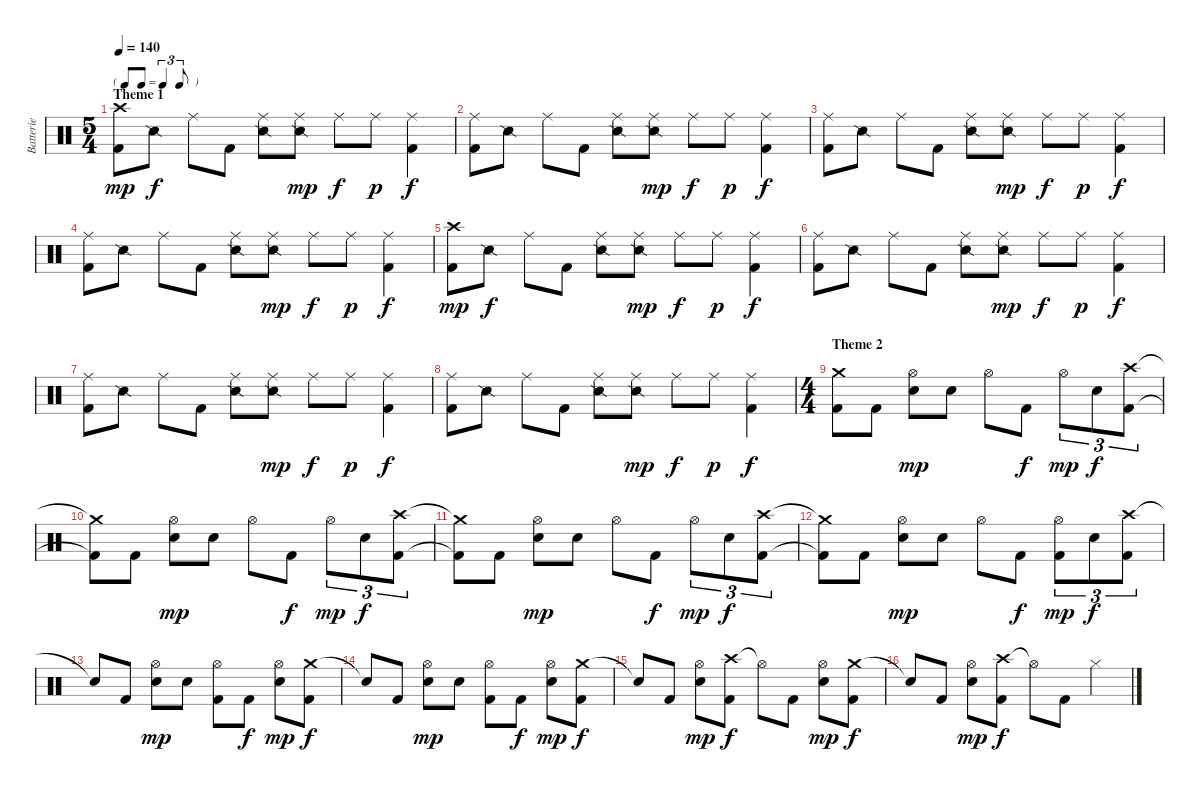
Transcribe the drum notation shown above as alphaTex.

\track ("Batterie" "Batterie") {instrument percussion}
\staff {score}
\articulation defaults
\ts (5 4)
\tf triplet8th
\section ("" "Theme 1")
\tempo 140
\clef neutral
\ks c
("Crash high (hit)" "Kick (hit) 2").8{dy mp} "Snare (side stick) 2".8{dy f} "Ride (middle)".8 "Kick (hit) 2".8 ("Ride (middle)" "Snare (side stick) 2").8 ("Ride (middle)" "Snare (side stick) 2").8{dy mp} "Ride (middle)".8{dy f} "Ride (middle)".8{dy p} ("Ride (middle)" "Kick (hit) 2").4{dy f} |
("Ride (middle)" "Kick (hit) 2").8 "Snare (side stick) 2".8 "Ride (middle)".8 "Kick (hit) 2".8 ("Ride (middle)" "Snare (side stick) 2").8 ("Ride (middle)" "Snare (side stick) 2").8{dy mp} "Ride (middle)".8{dy f} "Ride (middle)".8{dy p} ("Ride (middle)" "Kick (hit) 2").4{dy f} |
("Ride (middle)" "Kick (hit) 2").8 "Snare (side stick) 2".8 "Ride (middle)".8 "Kick (hit) 2".8 ("Ride (middle)" "Snare (side stick) 2").8 ("Ride (middle)" "Snare (side stick) 2").8{dy mp} "Ride (middle)".8{dy f} "Ride (middle)".8{dy p} ("Ride (middle)" "Kick (hit) 2").4{dy f} |
("Ride (middle)" "Kick (hit) 2").8 "Snare (side stick) 2".8 "Ride (middle)".8 "Kick (hit) 2".8 ("Ride (middle)" "Snare (side stick) 2").8 ("Ride (middle)" "Snare (side stick) 2").8{dy mp} "Ride (middle)".8{dy f} "Ride (middle)".8{dy p} ("Ride (middle)" "Kick (hit) 2").4{dy f} |
("Crash high (hit)" "Kick (hit) 2").8{dy mp} "Snare (side stick) 2".8{dy f} "Ride (middle)".8 "Kick (hit) 2".8 ("Ride (middle)" "Snare (side stick) 2").8 ("Ride (middle)" "Snare (side stick) 2").8{dy mp} "Ride (middle)".8{dy f} "Ride (middle)".8{dy p} ("Ride (middle)" "Kick (hit) 2").4{dy f} |
("Ride (middle)" "Kick (hit) 2").8 "Snare (side stick) 2".8 "Ride (middle)".8 "Kick (hit) 2".8 ("Ride (middle)" "Snare (side stick) 2").8 ("Ride (middle)" "Snare (side stick) 2").8{dy mp} "Ride (middle)".8{dy f} "Ride (middle)".8{dy p} ("Ride (middle)" "Kick (hit) 2").4{dy f} |
("Ride (middle)" "Kick (hit) 2").8 "Snare (side stick) 2".8 "Ride (middle)".8 "Kick (hit) 2".8 ("Ride (middle)" "Snare (side stick) 2").8 ("Ride (middle)" "Snare (side stick) 2").8{dy mp} "Ride (middle)".8{dy f} "Ride (middle)".8{dy p} ("Ride (middle)" "Kick (hit) 2").4{dy f} |
("Ride (middle)" "Kick (hit) 2").8 "Snare (side stick) 2".8 "Ride (middle)".8 "Kick (hit) 2".8 ("Ride (middle)" "Snare (side stick) 2").8 ("Ride (middle)" "Snare (side stick) 2").8{dy mp} "Ride (middle)".8{dy f} "Ride (middle)".8{dy p} ("Ride (middle)" "Kick (hit) 2").4{dy f} |
\ts (4 4)
\section ("" "Theme 2")
("Crash medium (hit)" "Kick (hit) 2").8 "Kick (hit) 2".8 ("Hi-Hat (open)" "Electric Snare (hit)").8{dy mp} "Electric Snare (hit)".8 "Hi-Hat (open)".8 "Kick (hit) 2".8{dy f} "Hi-Hat (open)".8{tu (3 2) dy mp} "Electric Snare (hit)".8{tu (3 2) dy f} ("Crash high (hit)" "Kick (hit) 2").8{tu (3 2)} |
("Crash medium (hit)"{t} "Kick (hit) 2"{t}).8 "Kick (hit) 2".8 ("Hi-Hat (open)" "Electric Snare (hit)").8{dy mp} "Electric Snare (hit)".8 "Hi-Hat (open)".8 "Kick (hit) 2".8{dy f} "Hi-Hat (open)".8{tu (3 2) dy mp} "Electric Snare (hit)".8{tu (3 2) dy f} ("Crash high (hit)" "Kick (hit) 2").8{tu (3 2)} |
("Crash medium (hit)"{t} "Kick (hit) 2"{t}).8 "Kick (hit) 2".8 ("Hi-Hat (open)" "Electric Snare (hit)").8{dy mp} "Electric Snare (hit)".8 "Hi-Hat (open)".8 "Kick (hit) 2".8{dy f} "Hi-Hat (open)".8{tu (3 2) dy mp} "Electric Snare (hit)".8{tu (3 2) dy f} ("Crash high (hit)" "Kick (hit) 2").8{tu (3 2)} |
("Crash medium (hit)"{t} "Kick (hit) 2"{t}).8 "Kick (hit) 2".8 ("Hi-Hat (open)" "Electric Snare (hit)").8{dy mp} "Electric Snare (hit)".8 "Hi-Hat (open)".8 "Kick (hit) 2".8{dy f} ("Hi-Hat (open)" "Kick (hit) 2").8{tu (3 2) dy mp} "Electric Snare (hit)".8{tu (3 2) dy f} ("Crash high (hit)" "Kick (hit) 2").8{tu (3 2)} |
"Snare (hit)"{t}.8 "Kick (hit) 2".8 ("Hi-Hat (open)" "Electric Snare (hit)").8{dy mp} "Electric Snare (hit)".8 ("Hi-Hat (open)" "Kick (hit) 2").8 "Kick (hit) 2".8{dy f} ("Hi-Hat (open)" "Electric Snare (hit)").8{dy mp} ("Crash medium (hit)" "Kick (hit) 2").8{dy f} |
"Snare (hit)"{t}.8 "Kick (hit) 2".8 ("Hi-Hat (open)" "Electric Snare (hit)").8{dy mp} "Electric Snare (hit)".8 ("Hi-Hat (open)" "Kick (hit) 2").8 "Kick (hit) 2".8{dy f} ("Hi-Hat (open)" "Electric Snare (hit)").8{dy mp} ("Crash medium (hit)" "Kick (hit) 2").8{dy f} |
"Snare (hit)"{t}.8 "Kick (hit) 2".8 ("Hi-Hat (open)" "Electric Snare (hit)").8{dy mp} ("Crash high (hit)" "Kick (hit) 2").8{dy f} "Hi-Hat (open)"{t}.8 "Kick (hit) 2".8 ("Hi-Hat (open)" "Electric Snare (hit)").8{dy mp} ("Crash medium (hit)" "Kick (hit) 2").8{dy f} |
"Snare (hit)"{t}.8 "Kick (hit) 2".8 ("Hi-Hat (open)" "Electric Snare (hit)").8{dy mp} ("Crash high (hit)" "Kick (hit) 2").8{dy f} "Hi-Hat (open)"{t}.8 "Kick (hit) 2".8 "Hi-Hat (closed)".4
